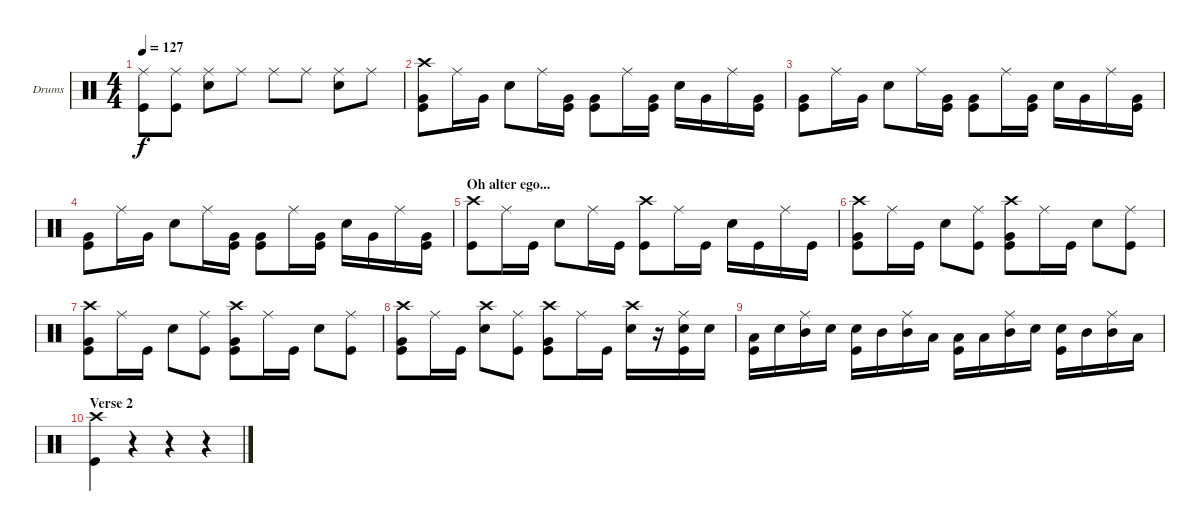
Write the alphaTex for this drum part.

\bracketExtendMode groupsimilarinstruments
\firstSystemTrackNameOrientation horizontal
\otherSystemsTrackNameOrientation horizontal
\track ("Drumkit" "Drums") {instrument percussion}
\staff {score}
\articulation defaults
\ts (4 4)
\tempo 127
\clef neutral
\ks c
("Kick (hit)" "Ride (middle)").8{dy f} ("Ride (middle)" "Kick (hit)").8 ("Snare (hit) 2" "Ride (middle)").8 "Ride (middle)".8 "Ride (middle)".8 "Ride (middle)".8 ("Snare (hit) 2" "Ride (middle)").8 "Ride (middle)".8 |
("Kick (hit)" "Crash high (hit)" "Very Low Tom (hit)").8 "Ride (middle)".16 "Very Low Tom (hit)".16 "Snare (hit) 2".8 "Ride (middle)".16 ("Kick (hit)" "Very Low Tom (hit)").16 ("Kick (hit)" "Very Low Tom (hit)").8 "Ride (middle)".16 ("Kick (hit)" "Very Low Tom (hit)").16 "Snare (hit) 2".16 "Very Low Tom (hit)".16 "Ride (middle)".16 ("Kick (hit)" "Very Low Tom (hit)").16 |
("Kick (hit)" "Very Low Tom (hit)").8 "Ride (middle)".16 "Very Low Tom (hit)".16 "Snare (hit) 2".8 "Ride (middle)".16 ("Kick (hit)" "Very Low Tom (hit)").16 ("Kick (hit)" "Very Low Tom (hit)").8 "Ride (middle)".16 ("Very Low Tom (hit)" "Kick (hit)").16 "Snare (hit) 2".16 "Very Low Tom (hit)".16 "Ride (middle)".16 ("Kick (hit)" "Very Low Tom (hit)").16 |
("Kick (hit)" "Very Low Tom (hit)").8 "Ride (middle)".16 "Very Low Tom (hit)".16 "Snare (hit) 2".8 "Ride (middle)".16 ("Kick (hit)" "Very Low Tom (hit)").16 ("Kick (hit)" "Very Low Tom (hit)").8 "Ride (middle)".16 ("Very Low Tom (hit)" "Kick (hit)").16 "Snare (hit) 2".16 "Very Low Tom (hit)".16 "Ride (middle)".16 ("Kick (hit)" "Very Low Tom (hit)").16 |
\section ("" "Oh alter ego...")
("Kick (hit)" "Crash high (hit)").8 "Ride (middle)".16 "Kick (hit)".16 "Snare (hit) 2".8 "Ride (middle)".16 "Kick (hit)".16 ("Kick (hit)" "Crash high (hit)").8 "Ride (middle)".16 "Kick (hit)".16 "Snare (hit) 2".16 "Kick (hit)".16 "Ride (middle)".16 "Kick (hit)".16 |
("Kick (hit)" "Crash high (hit)" "Very Low Tom (hit)").8 "Ride (middle)".16 "Kick (hit)".16 "Snare (hit) 2".8 ("Ride (middle)" "Kick (hit)").8 ("Kick (hit)" "Crash high (hit)" "Very Low Tom (hit)").8 "Ride (middle)".16 "Kick (hit)".16 "Snare (hit) 2".8 ("Ride (middle)" "Kick (hit)").8 |
("Kick (hit)" "Crash high (hit)" "Very Low Tom (hit)").8 "Ride (middle)".16 "Kick (hit)".16 "Snare (hit) 2".8 ("Ride (middle)" "Kick (hit)").8 ("Kick (hit)" "Crash high (hit)" "Very Low Tom (hit)").8 "Ride (middle)".16 "Kick (hit)".16 "Snare (hit) 2".8 ("Ride (middle)" "Kick (hit)").8 |
("Kick (hit)" "Crash high (hit)" "Very Low Tom (hit)").8 "Ride (middle)".16 "Kick (hit)".16 ("Snare (hit) 2" "Crash high (hit)").8 ("Ride (middle)" "Kick (hit)").8 ("Kick (hit)" "Crash high (hit)" "Very Low Tom (hit)").8 "Ride (middle)".16 "Kick (hit)".16 ("Snare (hit) 2" "Crash high (hit)").16 r.16 ("Ride (middle)" "Kick (hit)" "Snare (hit) 2").16 "Snare (hit) 2".16 |
("Kick (hit)" "Low Tom (hit)").16 "Snare (hit) 2".16 ("Mid Tom (hit)" "Ride (middle)").16 "Snare (hit) 2".16 ("Snare (hit) 2" "Kick (hit)").16 "Mid Tom (hit)".16 ("Mid Tom (hit)" "Ride (middle)").16 "Low Tom (hit)".16 ("Kick (hit)" "Low Tom (hit)").16 "Low Tom (hit)".16 ("Mid Tom (hit)" "Ride (middle)").16 "Snare (hit) 2".16 ("Snare (hit) 2" "Kick (hit)").16 "Mid Tom (hit)".16 ("Mid Tom (hit)" "Ride (middle)").16 "Low Tom (hit)".16 |
\section ("" "Verse 2")
("Kick (hit)" "Crash high (hit)").4 r.4 r.4 r.4
